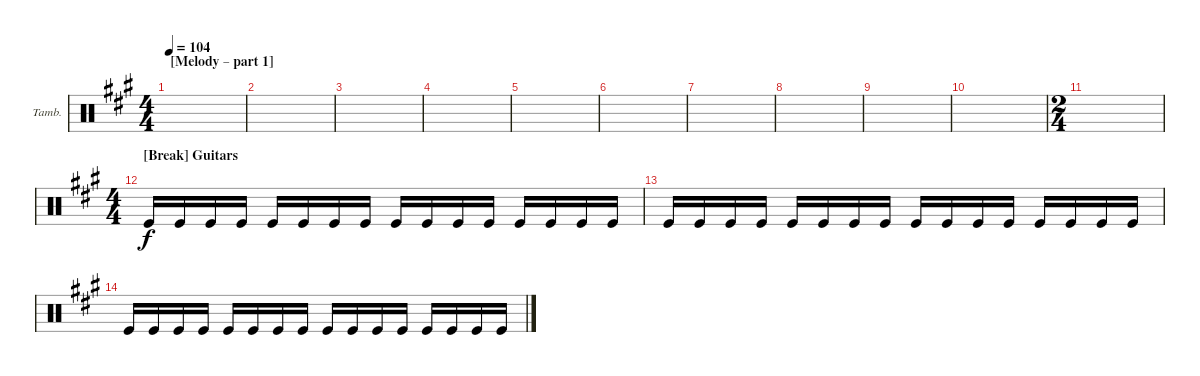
\bracketExtendMode groupsimilarinstruments
\firstSystemTrackNameOrientation horizontal
\otherSystemsTrackNameOrientation horizontal
\track ("Tambourine" "Tamb.") {instrument percussion}
\staff {score}
\articulation defaults
\ts (4 4)
\section ("" "[Melody – part 1] ")
\tempo 104
\clef neutral
\ks a
|
|
|
|
|
|
|
|
|
|
\ts (2 4)
|
\ts (4 4)
\section ("" "[Break] Guitars")
"Kick (hit)".16 "Kick (hit)".16 "Kick (hit)".16 "Kick (hit)".16 "Kick (hit)".16 "Kick (hit)".16 "Kick (hit)".16 "Kick (hit)".16 "Kick (hit)".16 "Kick (hit)".16 "Kick (hit)".16 "Kick (hit)".16 "Kick (hit)".16 "Kick (hit)".16 "Kick (hit)".16 "Kick (hit)".16 |
"Kick (hit)".16 "Kick (hit)".16 "Kick (hit)".16 "Kick (hit)".16 "Kick (hit)".16 "Kick (hit)".16 "Kick (hit)".16 "Kick (hit)".16 "Kick (hit)".16 "Kick (hit)".16 "Kick (hit)".16 "Kick (hit)".16 "Kick (hit)".16 "Kick (hit)".16 "Kick (hit)".16 "Kick (hit)".16 |
"Kick (hit)".16 "Kick (hit)".16 "Kick (hit)".16 "Kick (hit)".16 "Kick (hit)".16 "Kick (hit)".16 "Kick (hit)".16 "Kick (hit)".16 "Kick (hit)".16 "Kick (hit)".16 "Kick (hit)".16 "Kick (hit)".16 "Kick (hit)".16 "Kick (hit)".16 "Kick (hit)".16 "Kick (hit)".16
